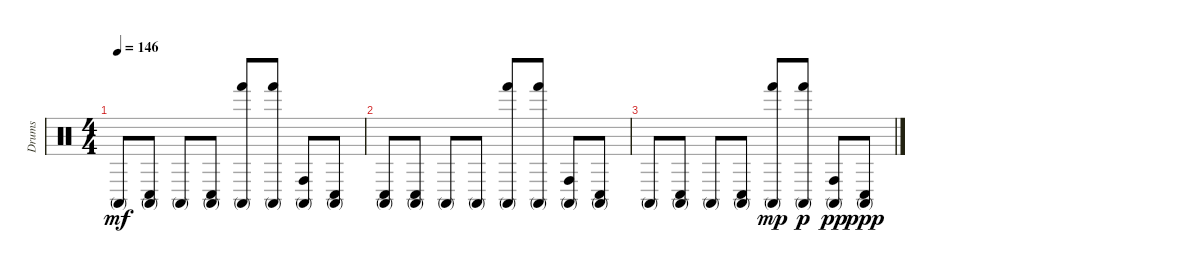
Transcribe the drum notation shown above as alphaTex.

\track ("Drums" "Drums") {instrument percussion}
\staff {score}
\articulation defaults
\ts (4 4)
\tempo 146
\clef neutral
\ks c "Conga high (mute)".8{dy mf}
("Conga low (hit)" "Conga high (mute)").8 "Conga high (mute)".8 ("Conga low (hit)" "Conga high (mute)").8 ("Hand (hit)" "Conga high (mute)").8 ("Hand (hit)" "Conga high (mute)").8 ("Conga high (hit)" "Conga high (mute)").8 ("Conga low (hit)" "Conga high (mute)").8 |
("Conga low (hit)" "Conga high (mute)").8 ("Conga low (hit)" "Conga high (mute)").8 "Conga high (mute)".8 "Conga high (mute)".8 ("Hand (hit)" "Conga high (mute)").8 ("Hand (hit)" "Conga high (mute)").8 ("Conga high (hit)" "Conga high (mute)").8 ("Conga low (hit)" "Conga high (mute)").8 |
"Conga high (mute)".8 ("Conga low (hit)" "Conga high (mute)").8 "Conga high (mute)".8 ("Conga low (hit)" "Conga high (mute)").8 ("Hand (hit)" "Conga high (mute)").8{dy mp} ("Hand (hit)" "Conga high (mute)").8{dy p} ("Conga high (hit)" "Conga high (mute)").8{dy pp} ("Conga low (hit)" "Conga high (mute)").8{dy ppp}
